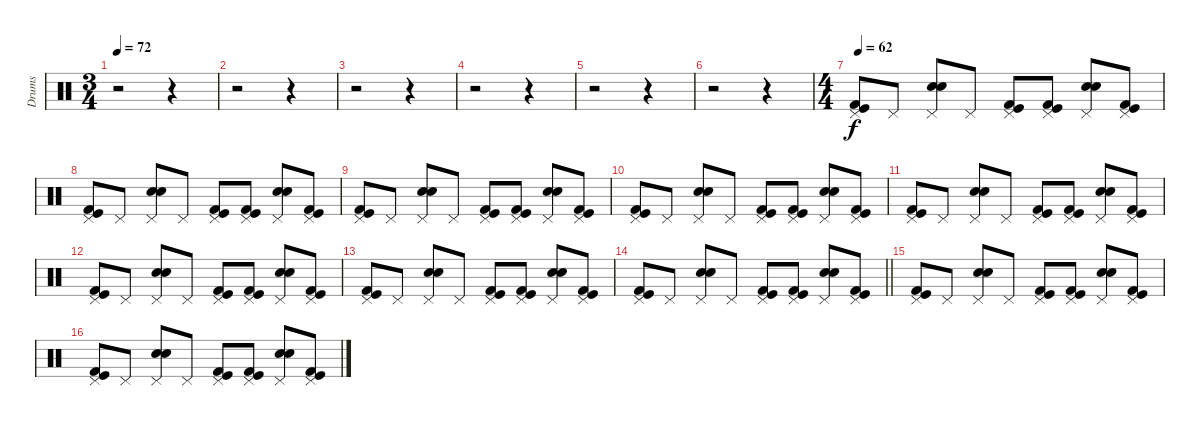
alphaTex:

\track ("Drums" "Drums") {instrument percussion}
\staff {score}
\articulation defaults
\ts (3 4)
\tempo 72
\clef neutral
\ks c
r.2{dy f} r.4 |
r.2 r.4 |
r.2 r.4 |
r.2 r.4 |
r.2 r.4 |
r.2 r.4 |
\ts (4 4)
\tempo 62
("Pedal Hi-Hat (hit)" "Kick (hit)" "Kick (hit) 2").8 "Pedal Hi-Hat (hit)".8 ("Pedal Hi-Hat (hit)" "Snare (hit) 2" "Electric Snare (hit)").8 "Pedal Hi-Hat (hit)".8 ("Pedal Hi-Hat (hit)" "Kick (hit)" "Kick (hit) 2").8 ("Pedal Hi-Hat (hit)" "Kick (hit)" "Kick (hit) 2").8 ("Pedal Hi-Hat (hit)" "Snare (hit) 2" "Electric Snare (hit)").8 ("Pedal Hi-Hat (hit)" "Kick (hit)" "Kick (hit) 2").8 |
("Pedal Hi-Hat (hit)" "Kick (hit)" "Kick (hit) 2").8 "Pedal Hi-Hat (hit)".8 ("Pedal Hi-Hat (hit)" "Snare (hit) 2" "Electric Snare (hit)").8 "Pedal Hi-Hat (hit)".8 ("Pedal Hi-Hat (hit)" "Kick (hit)" "Kick (hit) 2").8 ("Pedal Hi-Hat (hit)" "Kick (hit)" "Kick (hit) 2").8 ("Pedal Hi-Hat (hit)" "Snare (hit) 2" "Electric Snare (hit)").8 ("Pedal Hi-Hat (hit)" "Kick (hit)" "Kick (hit) 2").8 |
("Pedal Hi-Hat (hit)" "Kick (hit)" "Kick (hit) 2").8 "Pedal Hi-Hat (hit)".8 ("Pedal Hi-Hat (hit)" "Snare (hit) 2" "Electric Snare (hit)").8 "Pedal Hi-Hat (hit)".8 ("Pedal Hi-Hat (hit)" "Kick (hit)" "Kick (hit) 2").8 ("Pedal Hi-Hat (hit)" "Kick (hit)" "Kick (hit) 2").8 ("Pedal Hi-Hat (hit)" "Snare (hit) 2" "Electric Snare (hit)").8 ("Pedal Hi-Hat (hit)" "Kick (hit)" "Kick (hit) 2").8 |
("Pedal Hi-Hat (hit)" "Kick (hit)" "Kick (hit) 2").8 "Pedal Hi-Hat (hit)".8 ("Pedal Hi-Hat (hit)" "Snare (hit) 2" "Electric Snare (hit)").8 "Pedal Hi-Hat (hit)".8 ("Pedal Hi-Hat (hit)" "Kick (hit)" "Kick (hit) 2").8 ("Pedal Hi-Hat (hit)" "Kick (hit)" "Kick (hit) 2").8 ("Pedal Hi-Hat (hit)" "Snare (hit) 2" "Electric Snare (hit)").8 ("Pedal Hi-Hat (hit)" "Kick (hit)" "Kick (hit) 2").8 |
("Pedal Hi-Hat (hit)" "Kick (hit)" "Kick (hit) 2").8 "Pedal Hi-Hat (hit)".8 ("Pedal Hi-Hat (hit)" "Snare (hit) 2" "Electric Snare (hit)").8 "Pedal Hi-Hat (hit)".8 ("Pedal Hi-Hat (hit)" "Kick (hit)" "Kick (hit) 2").8 ("Pedal Hi-Hat (hit)" "Kick (hit)" "Kick (hit) 2").8 ("Pedal Hi-Hat (hit)" "Snare (hit) 2" "Electric Snare (hit)").8 ("Pedal Hi-Hat (hit)" "Kick (hit)" "Kick (hit) 2").8 |
("Pedal Hi-Hat (hit)" "Kick (hit)" "Kick (hit) 2").8 "Pedal Hi-Hat (hit)".8 ("Pedal Hi-Hat (hit)" "Snare (hit) 2" "Electric Snare (hit)").8 "Pedal Hi-Hat (hit)".8 ("Pedal Hi-Hat (hit)" "Kick (hit)" "Kick (hit) 2").8 ("Pedal Hi-Hat (hit)" "Kick (hit)" "Kick (hit) 2").8 ("Pedal Hi-Hat (hit)" "Snare (hit) 2" "Electric Snare (hit)").8 ("Pedal Hi-Hat (hit)" "Kick (hit)" "Kick (hit) 2").8 |
("Pedal Hi-Hat (hit)" "Kick (hit)" "Kick (hit) 2").8 "Pedal Hi-Hat (hit)".8 ("Pedal Hi-Hat (hit)" "Snare (hit) 2" "Electric Snare (hit)").8 "Pedal Hi-Hat (hit)".8 ("Pedal Hi-Hat (hit)" "Kick (hit)" "Kick (hit) 2").8 ("Pedal Hi-Hat (hit)" "Kick (hit)" "Kick (hit) 2").8 ("Pedal Hi-Hat (hit)" "Snare (hit) 2" "Electric Snare (hit)").8 ("Pedal Hi-Hat (hit)" "Kick (hit)" "Kick (hit) 2").8 |
\barLineRight lightlight
("Pedal Hi-Hat (hit)" "Kick (hit)" "Kick (hit) 2").8 "Pedal Hi-Hat (hit)".8 ("Pedal Hi-Hat (hit)" "Snare (hit) 2" "Electric Snare (hit)").8 "Pedal Hi-Hat (hit)".8 ("Pedal Hi-Hat (hit)" "Kick (hit)" "Kick (hit) 2").8 ("Pedal Hi-Hat (hit)" "Kick (hit)" "Kick (hit) 2").8 ("Pedal Hi-Hat (hit)" "Snare (hit) 2" "Electric Snare (hit)").8 ("Pedal Hi-Hat (hit)" "Kick (hit)" "Kick (hit) 2").8 |
("Pedal Hi-Hat (hit)" "Kick (hit)" "Kick (hit) 2").8 "Pedal Hi-Hat (hit)".8 ("Pedal Hi-Hat (hit)" "Snare (hit) 2" "Electric Snare (hit)").8 "Pedal Hi-Hat (hit)".8 ("Pedal Hi-Hat (hit)" "Kick (hit)" "Kick (hit) 2").8 ("Pedal Hi-Hat (hit)" "Kick (hit)" "Kick (hit) 2").8 ("Pedal Hi-Hat (hit)" "Snare (hit) 2" "Electric Snare (hit)").8 ("Pedal Hi-Hat (hit)" "Kick (hit)" "Kick (hit) 2").8 |
("Pedal Hi-Hat (hit)" "Kick (hit)" "Kick (hit) 2").8 "Pedal Hi-Hat (hit)".8 ("Pedal Hi-Hat (hit)" "Snare (hit) 2" "Electric Snare (hit)").8 "Pedal Hi-Hat (hit)".8 ("Pedal Hi-Hat (hit)" "Kick (hit)" "Kick (hit) 2").8 ("Pedal Hi-Hat (hit)" "Kick (hit)" "Kick (hit) 2").8 ("Pedal Hi-Hat (hit)" "Snare (hit) 2" "Electric Snare (hit)").8 ("Pedal Hi-Hat (hit)" "Kick (hit)" "Kick (hit) 2").8
